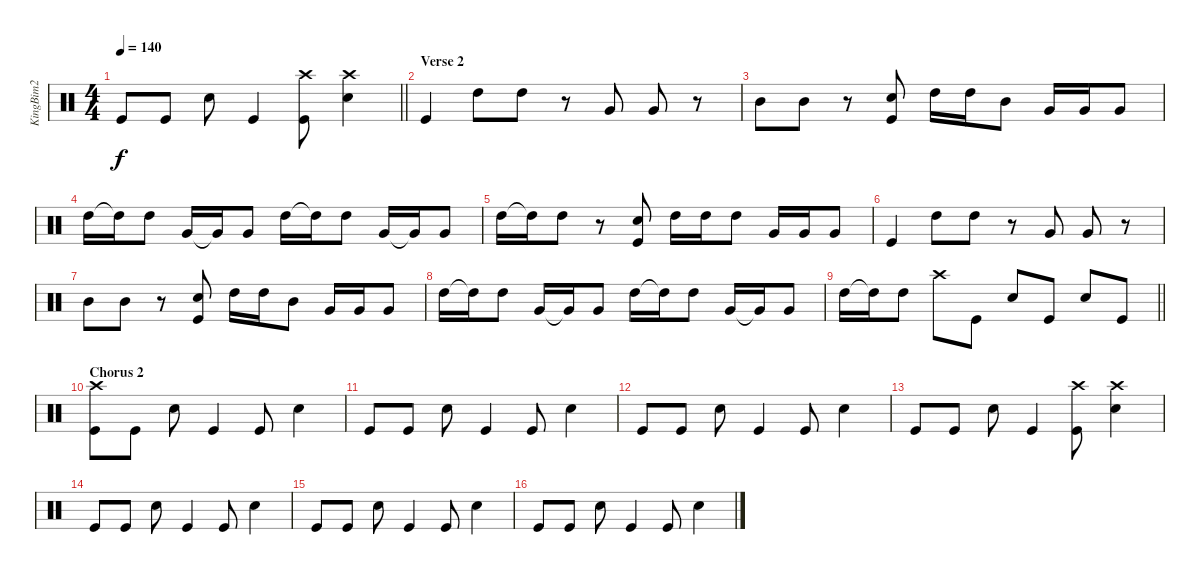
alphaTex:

\track ("KingBim2" "KingBim2") {instrument percussion}
\staff {score}
\articulation defaults
\ts (4 4)
\tempo 140
\clef neutral
\barLineRight lightlight
\ks c "Kick (hit)".8{dy f} "Kick (hit)".8 "Snare (hit) 2".8 "Kick (hit)".4
("Crash high (hit)" "Kick (hit)").8 ("Crash high (hit)" "Snare (hit) 2").4 |
\section ("" "Verse 2")
"Kick (hit)".4 "High Tom (hit)".8 "High Tom (hit)".8 r.8 "Very Low Tom (hit)".8 "Very Low Tom (hit)".8 r.8 |
"Mid Tom (hit)".8 "Mid Tom (hit)".8 r.8 ("Snare (hit) 2" "Kick (hit)").8 "High Tom (hit)".16 "High Tom (hit)".16 "Mid Tom (hit)".8 "Very Low Tom (hit)".16 "Very Low Tom (hit)".16 "Very Low Tom (hit)".8 |
"High Tom (hit)".16 "High Tom (hit)"{t}.16 "High Tom (hit)".8 "Very Low Tom (hit)".16 "Very Low Tom (hit)"{t}.16 "Very Low Tom (hit)".8 "High Tom (hit)".16 "High Tom (hit)"{t}.16 "High Tom (hit)".8 "Very Low Tom (hit)".16 "Very Low Tom (hit)"{t}.16 "Very Low Tom (hit)".8 |
"High Tom (hit)".16 "High Tom (hit)"{t}.16 "High Tom (hit)".8 r.8 ("Snare (hit) 2" "Kick (hit)").8 "High Tom (hit)".16 "High Tom (hit)".16 "High Tom (hit)".8 "Very Low Tom (hit)".16 "Very Low Tom (hit)".16 "Very Low Tom (hit)".8 |
"Kick (hit)".4 "High Tom (hit)".8 "High Tom (hit)".8 r.8 "Very Low Tom (hit)".8 "Very Low Tom (hit)".8 r.8 |
"Mid Tom (hit)".8 "Mid Tom (hit)".8 r.8 ("Snare (hit) 2" "Kick (hit)").8 "High Tom (hit)".16 "High Tom (hit)".16 "Mid Tom (hit)".8 "Very Low Tom (hit)".16 "Very Low Tom (hit)".16 "Very Low Tom (hit)".8 |
"High Tom (hit)".16 "High Tom (hit)"{t}.16 "High Tom (hit)".8 "Very Low Tom (hit)".16 "Very Low Tom (hit)"{t}.16 "Very Low Tom (hit)".8 "High Tom (hit)".16 "High Tom (hit)"{t}.16 "High Tom (hit)".8 "Very Low Tom (hit)".16 "Very Low Tom (hit)"{t}.16 "Very Low Tom (hit)".8 |
\barLineRight lightlight "High Tom (hit)".16 "High Tom (hit)"{t}.16 "High Tom (hit)".8 "Crash high (hit)".8 "Kick (hit)".8 "Snare (hit) 2".8 "Kick (hit)".8 "Snare (hit) 2".8 "Kick (hit)".8
|
\section ("" "Chorus 2")
("Crash high (hit)" "Kick (hit)").8 "Kick (hit)".8 "Snare (hit) 2".8 "Kick (hit)".4 "Kick (hit)".8 "Snare (hit) 2".4 |
"Kick (hit)".8 "Kick (hit)".8 "Snare (hit) 2".8 "Kick (hit)".4 "Kick (hit)".8 "Snare (hit) 2".4 |
"Kick (hit)".8 "Kick (hit)".8 "Snare (hit) 2".8 "Kick (hit)".4 "Kick (hit)".8 "Snare (hit) 2".4 |
"Kick (hit)".8 "Kick (hit)".8 "Snare (hit) 2".8 "Kick (hit)".4 ("Crash high (hit)" "Kick (hit)").8 ("Crash high (hit)" "Snare (hit) 2").4 |
"Kick (hit)".8 "Kick (hit)".8 "Snare (hit) 2".8 "Kick (hit)".4 "Kick (hit)".8 "Snare (hit) 2".4 |
"Kick (hit)".8 "Kick (hit)".8 "Snare (hit) 2".8 "Kick (hit)".4 "Kick (hit)".8 "Snare (hit) 2".4 |
"Kick (hit)".8 "Kick (hit)".8 "Snare (hit) 2".8 "Kick (hit)".4 "Kick (hit)".8 "Snare (hit) 2".4
